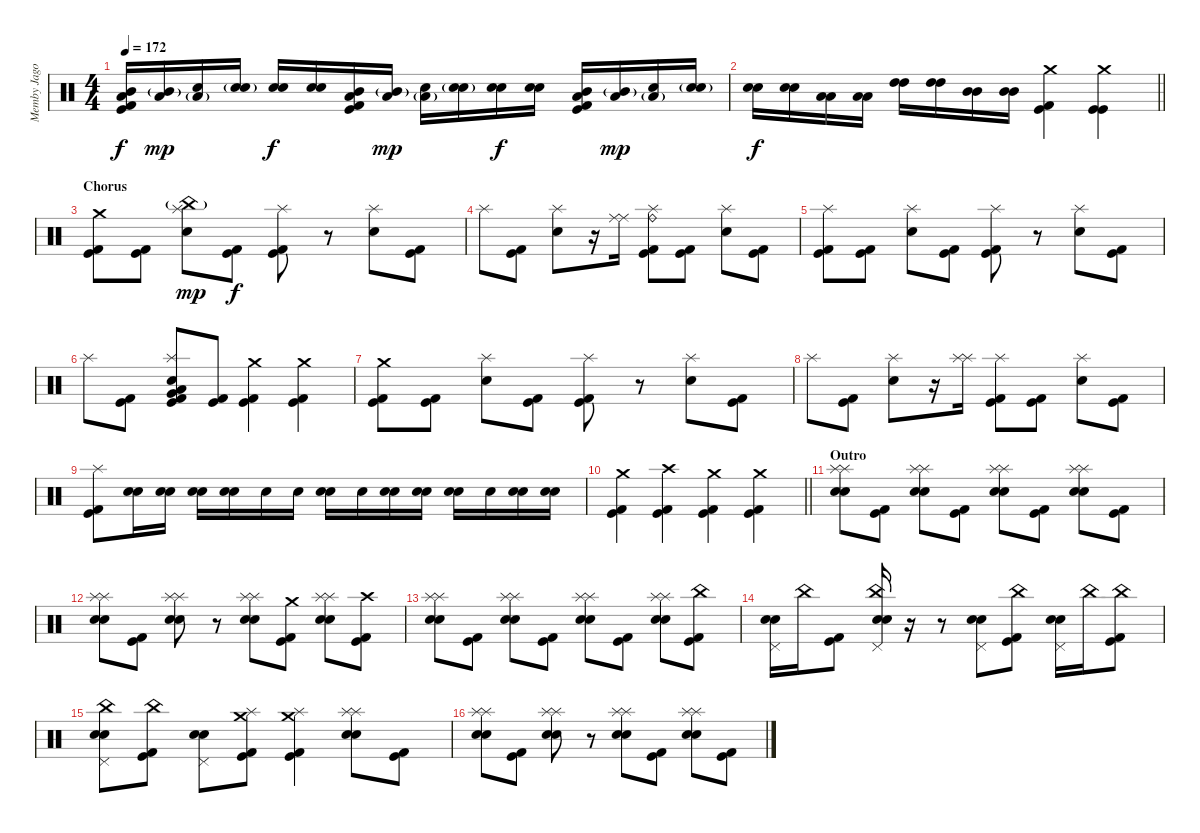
\track ("Memby Jago" "Memby Jago") {instrument percussion}
\staff {score}
\articulation defaults
\ts (4 4)
\tempo 172
\clef neutral
\ks c
("Low Tom (hit)" "Mid Tom (hit)" "Kick (hit)" "Kick (hit) 2").16{dy f} ("Low Tom (hit)" "Mid Tom (hit)"{g}).16{dy mp} ("Low Tom (hit)"{g} "Snare (hit) 2").16 ("Electric Snare (hit)"{g} "Snare (hit) 2").16 ("Electric Snare (hit)" "Snare (hit) 2").16{dy f} ("Electric Snare (hit)" "Snare (hit) 2").16 ("Low Tom (hit)" "Mid Tom (hit)" "Kick (hit)" "Kick (hit) 2").16 ("Low Tom (hit)" "Mid Tom (hit)"{g}).16{dy mp} ("Low Tom (hit)"{g} "Snare (hit) 2").16 ("Electric Snare (hit)"{g} "Snare (hit) 2").16 ("Electric Snare (hit)" "Snare (hit) 2").16{dy f} ("Electric Snare (hit)" "Snare (hit) 2").16 ("Low Tom (hit)" "Mid Tom (hit)" "Kick (hit)" "Kick (hit) 2").16 ("Low Tom (hit)" "Mid Tom (hit)"{g}).16{dy mp} ("Low Tom (hit)"{g} "Snare (hit) 2").16 ("Electric Snare (hit)"{g} "Snare (hit) 2").16 |
\barLineRight lightlight
("Electric Snare (hit)" "Snare (hit) 2").16{dy f} ("Electric Snare (hit)" "Snare (hit) 2").16 ("Low Tom (hit)" "Low Tom (hit)").16 ("Low Tom (hit)" "Low Tom (hit)").16 ("High Tom (hit)" "High Tom (hit)").16 ("High Tom (hit)" "High Tom (hit)").16 ("Mid Tom (hit)" "Mid Tom (hit)").16 ("Mid Tom (hit)" "Mid Tom (hit)").16 ("Crash medium (hit)" "Kick (hit)" "Kick (hit) 2").4 ("Crash medium (hit)" "Kick (hit)" "Kick (hit)").4 |
\section ("" "Chorus")
("Crash medium (hit)" "Kick (hit)" "Kick (hit) 2").8 ("Kick (hit)" "Kick (hit) 2").8 ("Splash (hit)" "China (hit)"{g} "Snare (hit) 2").8{dy mp} ("Kick (hit)" "Kick (hit) 2").8{dy f} ("Splash (hit)" "Kick (hit)" "Kick (hit) 2").8 r.8 ("Splash (hit)" "Snare (hit) 2").8 ("Kick (hit)" "Kick (hit) 2").8 |
"Splash (hit)".8 ("Kick (hit)" "Kick (hit) 2").8 ("Splash (hit)" "Snare (hit) 2").8 r.16 ("Ride (middle)" "Ride (middle)").16 ("Ride (bell)" "Splash (hit)" "Kick (hit)" "Kick (hit) 2").8 ("Kick (hit)" "Kick (hit) 2").8 ("Splash (hit)" "Snare (hit) 2").8 ("Kick (hit)" "Kick (hit) 2").8 |
("Splash (hit)" "Kick (hit)" "Kick (hit) 2").8 ("Kick (hit)" "Kick (hit) 2").8 ("Splash (hit)" "Snare (hit) 2").8 ("Kick (hit)" "Kick (hit) 2").8 ("Splash (hit)" "Kick (hit)" "Kick (hit) 2").8 r.8 ("Splash (hit)" "Snare (hit) 2").8 ("Kick (hit)" "Kick (hit) 2").8 |
"Splash (hit)".8 ("Kick (hit)" "Kick (hit) 2").8 ("Low Tom (hit)" "Splash (hit)" "Very Low Tom (hit)" "Snare (hit) 2" "Kick (hit)" "Kick (hit) 2").8 ("Kick (hit)" "Kick (hit) 2").8 ("Crash medium (hit)" "Kick (hit)" "Kick (hit) 2").4 ("Crash medium (hit)" "Kick (hit)" "Kick (hit) 2").4 |
("Crash medium (hit)" "Kick (hit)" "Kick (hit) 2").8 ("Kick (hit)" "Kick (hit) 2").8 ("Splash (hit)" "Snare (hit) 2").8 ("Kick (hit)" "Kick (hit) 2").8 ("Splash (hit)" "Kick (hit)" "Kick (hit) 2").8 r.8 ("Splash (hit)" "Snare (hit) 2").8 ("Kick (hit)" "Kick (hit) 2").8 |
"Splash (hit)".8 ("Kick (hit)" "Kick (hit) 2").8 ("Splash (hit)" "Snare (hit) 2").8 r.16 ("Splash (hit)" "Splash (hit)").16 ("Splash (hit)" "Kick (hit)" "Kick (hit) 2").8 ("Kick (hit)" "Kick (hit) 2").8 ("Splash (hit)" "Snare (hit) 2").8 ("Kick (hit)" "Kick (hit) 2").8 |
("Splash (hit)" "Kick (hit)" "Kick (hit) 2").8 ("Electric Snare (hit)" "Snare (hit) 2").16 ("Electric Snare (hit)" "Snare (hit) 2").16 ("Electric Snare (hit)" "Snare (hit) 2").16 ("Electric Snare (hit)" "Snare (hit) 2").16 "Snare (hit) 2".16 "Snare (hit) 2".16 ("Electric Snare (hit)" "Snare (hit) 2").16 "Snare (hit) 2".16 ("Electric Snare (hit)" "Snare (hit) 2").16 ("Electric Snare (hit)" "Snare (hit) 2").16 ("Electric Snare (hit)" "Snare (hit) 2").16 "Snare (hit) 2".16 ("Electric Snare (hit)" "Snare (hit) 2").16 ("Electric Snare (hit)" "Snare (hit) 2").16 |
\barLineRight lightlight
("Crash medium (hit)" "Kick (hit)" "Kick (hit) 2").4 ("Crash high (hit)" "Kick (hit)" "Kick (hit) 2").4 ("Crash medium (hit)" "Kick (hit)" "Kick (hit) 2").4 ("Crash medium (hit)" "Kick (hit)" "Kick (hit) 2").4 |
\section ("" "Outro")
("Splash (hit)" "Splash (hit)" "Electric Snare (hit)" "Snare (hit) 2").8 ("Kick (hit)" "Kick (hit) 2").8 ("Splash (hit)" "Splash (hit)" "Electric Snare (hit)" "Snare (hit) 2").8 ("Kick (hit)" "Kick (hit) 2").8 ("Splash (hit)" "Splash (hit)" "Electric Snare (hit)" "Snare (hit) 2").8 ("Kick (hit)" "Kick (hit) 2").8 ("Splash (hit)" "Splash (hit)" "Electric Snare (hit)" "Snare (hit) 2").8 ("Kick (hit)" "Kick (hit) 2").8 |
("Splash (hit)" "Splash (hit)" "Electric Snare (hit)" "Snare (hit) 2").8 ("Kick (hit)" "Kick (hit) 2").8 ("Splash (hit)" "Splash (hit)" "Electric Snare (hit)" "Snare (hit) 2").8 r.8 ("Splash (hit)" "Splash (hit)" "Electric Snare (hit)" "Snare (hit) 2").8 ("Crash medium (hit)" "Kick (hit)" "Kick (hit) 2").8 ("Splash (hit)" "Splash (hit)" "Electric Snare (hit)" "Snare (hit) 2").8 ("Crash high (hit)" "Kick (hit)" "Kick (hit) 2").8 |
("Splash (hit)" "Splash (hit)" "Electric Snare (hit)" "Snare (hit) 2").8 ("Kick (hit)" "Kick (hit) 2").8 ("Splash (hit)" "Splash (hit)" "Electric Snare (hit)" "Snare (hit) 2").8 ("Kick (hit)" "Kick (hit) 2").8 ("Splash (hit)" "Splash (hit)" "Electric Snare (hit)" "Snare (hit) 2").8 ("Kick (hit)" "Kick (hit) 2").8 ("Splash (hit)" "Splash (hit)" "Electric Snare (hit)" "Snare (hit) 2").8 ("China (hit)" "Kick (hit)" "Kick (hit) 2").8 |
("Pedal Hi-Hat (hit)" "Electric Snare (hit)" "Snare (hit) 2").16 "China (hit)".16 ("Kick (hit)" "Kick (hit) 2").8 ("China (hit)" "Pedal Hi-Hat (hit)" "Electric Snare (hit)" "Snare (hit) 2").16 r.16 r.8 ("Pedal Hi-Hat (hit)" "Electric Snare (hit)" "Snare (hit) 2").8 ("China (hit)" "Kick (hit)" "Kick (hit) 2").8 ("Pedal Hi-Hat (hit)" "Electric Snare (hit)" "Snare (hit) 2").16 "China (hit)".16 ("China (hit)" "Kick (hit)" "Kick (hit) 2").8 |
("China (hit)" "Pedal Hi-Hat (hit)" "Electric Snare (hit)" "Snare (hit) 2").8 ("China (hit)" "Kick (hit)" "Kick (hit) 2").8 ("Pedal Hi-Hat (hit)" "Electric Snare (hit)" "Snare (hit) 2").8 ("Crash medium (hit)" "Splash (hit)" "Kick (hit)" "Kick (hit) 2").8 ("Crash medium (hit)" "Splash (hit)" "Kick (hit)" "Kick (hit) 2").4 ("Splash (hit)" "Splash (hit)" "Electric Snare (hit)" "Snare (hit) 2").8 ("Kick (hit)" "Kick (hit) 2").8 |
("Splash (hit)" "Splash (hit)" "Electric Snare (hit)" "Snare (hit) 2").8 ("Kick (hit)" "Kick (hit) 2").8 ("Splash (hit)" "Splash (hit)" "Electric Snare (hit)" "Snare (hit) 2").8 r.8 ("Splash (hit)" "Splash (hit)" "Electric Snare (hit)" "Snare (hit) 2").8 ("Kick (hit)" "Kick (hit) 2").8 ("Splash (hit)" "Splash (hit)" "Electric Snare (hit)" "Snare (hit) 2").8 ("Kick (hit)" "Kick (hit) 2").8
